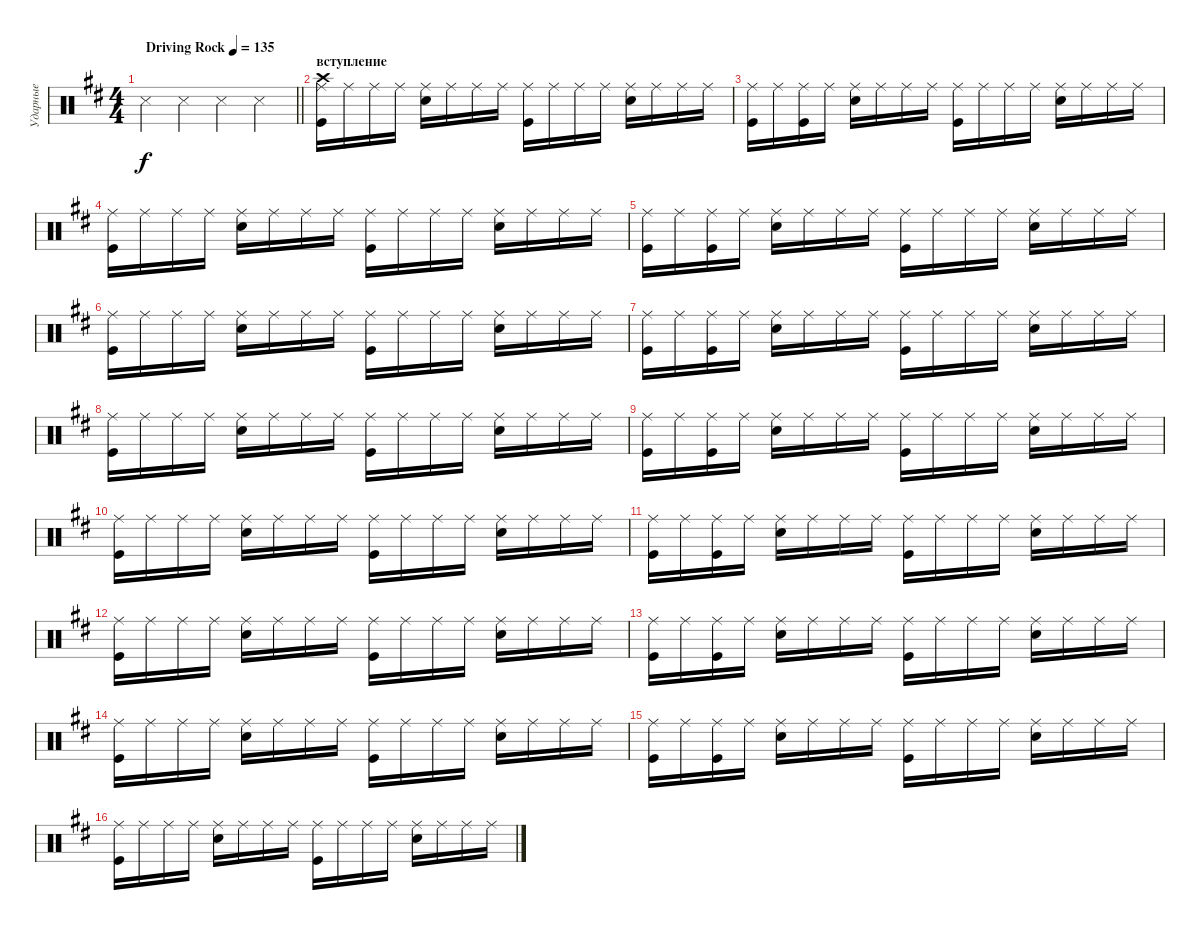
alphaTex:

\track ("Ударные" "Ударные") {solo instrument percussion}
\staff {score}
\articulation defaults
\ts (4 4)
\tempo (135 "Driving Rock")
\clef neutral
\barLineRight lightlight
\ks bminor "Snare (side stick) 3".4{dy f} "Snare (side stick) 3".4 "Snare (side stick) 3".4 "Snare (side stick) 3".4
|
\section ("" "вступление")
("Kick (hit)" "Ride (middle)" "Crash high (hit)").16 "Ride (middle)".16 "Ride (middle)".16 "Ride (middle)".16 ("Ride (middle)" "Snare (hit) 2").16 "Ride (middle)".16 "Ride (middle)".16 "Ride (middle)".16 ("Kick (hit)" "Ride (middle)").16 "Ride (middle)".16 "Ride (middle)".16 "Ride (middle)".16 ("Ride (middle)" "Snare (hit) 2").16 "Ride (middle)".16 "Ride (middle)".16 "Ride (middle)".16 |
("Kick (hit)" "Ride (middle)").16 "Ride (middle)".16 ("Kick (hit)" "Ride (middle)").16 "Ride (middle)".16 ("Ride (middle)" "Snare (hit) 2").16 "Ride (middle)".16 "Ride (middle)".16 "Ride (middle)".16 ("Kick (hit)" "Ride (middle)").16 "Ride (middle)".16 "Ride (middle)".16 "Ride (middle)".16 ("Ride (middle)" "Snare (hit) 2").16 "Ride (middle)".16 "Ride (middle)".16 "Ride (middle)".16 |
("Kick (hit)" "Ride (middle)").16 "Ride (middle)".16 "Ride (middle)".16 "Ride (middle)".16 ("Ride (middle)" "Snare (hit) 2").16 "Ride (middle)".16 "Ride (middle)".16 "Ride (middle)".16 ("Kick (hit)" "Ride (middle)").16 "Ride (middle)".16 "Ride (middle)".16 "Ride (middle)".16 ("Ride (middle)" "Snare (hit) 2").16 "Ride (middle)".16 "Ride (middle)".16 "Ride (middle)".16 |
("Kick (hit)" "Ride (middle)").16 "Ride (middle)".16 ("Kick (hit)" "Ride (middle)").16 "Ride (middle)".16 ("Ride (middle)" "Snare (hit) 2").16 "Ride (middle)".16 "Ride (middle)".16 "Ride (middle)".16 ("Kick (hit)" "Ride (middle)").16 "Ride (middle)".16 "Ride (middle)".16 "Ride (middle)".16 ("Ride (middle)" "Snare (hit) 2").16 "Ride (middle)".16 "Ride (middle)".16 "Ride (middle)".16 |
("Kick (hit)" "Ride (middle)").16 "Ride (middle)".16 "Ride (middle)".16 "Ride (middle)".16 ("Ride (middle)" "Snare (hit) 2").16 "Ride (middle)".16 "Ride (middle)".16 "Ride (middle)".16 ("Kick (hit)" "Ride (middle)").16 "Ride (middle)".16 "Ride (middle)".16 "Ride (middle)".16 ("Ride (middle)" "Snare (hit) 2").16 "Ride (middle)".16 "Ride (middle)".16 "Ride (middle)".16 |
("Kick (hit)" "Ride (middle)").16 "Ride (middle)".16 ("Kick (hit)" "Ride (middle)").16 "Ride (middle)".16 ("Ride (middle)" "Snare (hit) 2").16 "Ride (middle)".16 "Ride (middle)".16 "Ride (middle)".16 ("Kick (hit)" "Ride (middle)").16 "Ride (middle)".16 "Ride (middle)".16 "Ride (middle)".16 ("Ride (middle)" "Snare (hit) 2").16 "Ride (middle)".16 "Ride (middle)".16 "Ride (middle)".16 |
("Kick (hit)" "Ride (middle)").16 "Ride (middle)".16 "Ride (middle)".16 "Ride (middle)".16 ("Ride (middle)" "Snare (hit) 2").16 "Ride (middle)".16 "Ride (middle)".16 "Ride (middle)".16 ("Kick (hit)" "Ride (middle)").16 "Ride (middle)".16 "Ride (middle)".16 "Ride (middle)".16 ("Ride (middle)" "Snare (hit) 2").16 "Ride (middle)".16 "Ride (middle)".16 "Ride (middle)".16 |
("Kick (hit)" "Ride (middle)").16 "Ride (middle)".16 ("Kick (hit)" "Ride (middle)").16 "Ride (middle)".16 ("Ride (middle)" "Snare (hit) 2").16 "Ride (middle)".16 "Ride (middle)".16 "Ride (middle)".16 ("Kick (hit)" "Ride (middle)").16 "Ride (middle)".16 "Ride (middle)".16 "Ride (middle)".16 ("Ride (middle)" "Snare (hit) 2").16 "Ride (middle)".16 "Ride (middle)".16 "Ride (middle)".16 |
("Kick (hit)" "Ride (middle)").16 "Ride (middle)".16 "Ride (middle)".16 "Ride (middle)".16 ("Ride (middle)" "Snare (hit) 2").16 "Ride (middle)".16 "Ride (middle)".16 "Ride (middle)".16 ("Kick (hit)" "Ride (middle)").16 "Ride (middle)".16 "Ride (middle)".16 "Ride (middle)".16 ("Ride (middle)" "Snare (hit) 2").16 "Ride (middle)".16 "Ride (middle)".16 "Ride (middle)".16 |
("Kick (hit)" "Ride (middle)").16 "Ride (middle)".16 ("Kick (hit)" "Ride (middle)").16 "Ride (middle)".16 ("Ride (middle)" "Snare (hit) 2").16 "Ride (middle)".16 "Ride (middle)".16 "Ride (middle)".16 ("Kick (hit)" "Ride (middle)").16 "Ride (middle)".16 "Ride (middle)".16 "Ride (middle)".16 ("Ride (middle)" "Snare (hit) 2").16 "Ride (middle)".16 "Ride (middle)".16 "Ride (middle)".16 |
("Kick (hit)" "Ride (middle)").16 "Ride (middle)".16 "Ride (middle)".16 "Ride (middle)".16 ("Ride (middle)" "Snare (hit) 2").16 "Ride (middle)".16 "Ride (middle)".16 "Ride (middle)".16 ("Kick (hit)" "Ride (middle)").16 "Ride (middle)".16 "Ride (middle)".16 "Ride (middle)".16 ("Ride (middle)" "Snare (hit) 2").16 "Ride (middle)".16 "Ride (middle)".16 "Ride (middle)".16 |
("Kick (hit)" "Ride (middle)").16 "Ride (middle)".16 ("Kick (hit)" "Ride (middle)").16 "Ride (middle)".16 ("Ride (middle)" "Snare (hit) 2").16 "Ride (middle)".16 "Ride (middle)".16 "Ride (middle)".16 ("Kick (hit)" "Ride (middle)").16 "Ride (middle)".16 "Ride (middle)".16 "Ride (middle)".16 ("Ride (middle)" "Snare (hit) 2").16 "Ride (middle)".16 "Ride (middle)".16 "Ride (middle)".16 |
("Kick (hit)" "Ride (middle)").16 "Ride (middle)".16 "Ride (middle)".16 "Ride (middle)".16 ("Ride (middle)" "Snare (hit) 2").16 "Ride (middle)".16 "Ride (middle)".16 "Ride (middle)".16 ("Kick (hit)" "Ride (middle)").16 "Ride (middle)".16 "Ride (middle)".16 "Ride (middle)".16 ("Ride (middle)" "Snare (hit) 2").16 "Ride (middle)".16 "Ride (middle)".16 "Ride (middle)".16 |
("Kick (hit)" "Ride (middle)").16 "Ride (middle)".16 ("Kick (hit)" "Ride (middle)").16 "Ride (middle)".16 ("Ride (middle)" "Snare (hit) 2").16 "Ride (middle)".16 "Ride (middle)".16 "Ride (middle)".16 ("Kick (hit)" "Ride (middle)").16 "Ride (middle)".16 "Ride (middle)".16 "Ride (middle)".16 ("Ride (middle)" "Snare (hit) 2").16 "Ride (middle)".16 "Ride (middle)".16 "Ride (middle)".16 |
("Kick (hit)" "Ride (middle)").16 "Ride (middle)".16 "Ride (middle)".16 "Ride (middle)".16 ("Ride (middle)" "Snare (hit) 2").16 "Ride (middle)".16 "Ride (middle)".16 "Ride (middle)".16 ("Kick (hit)" "Ride (middle)").16 "Ride (middle)".16 "Ride (middle)".16 "Ride (middle)".16 ("Ride (middle)" "Snare (hit) 2").16 "Ride (middle)".16 "Ride (middle)".16 "Ride (middle)".16
